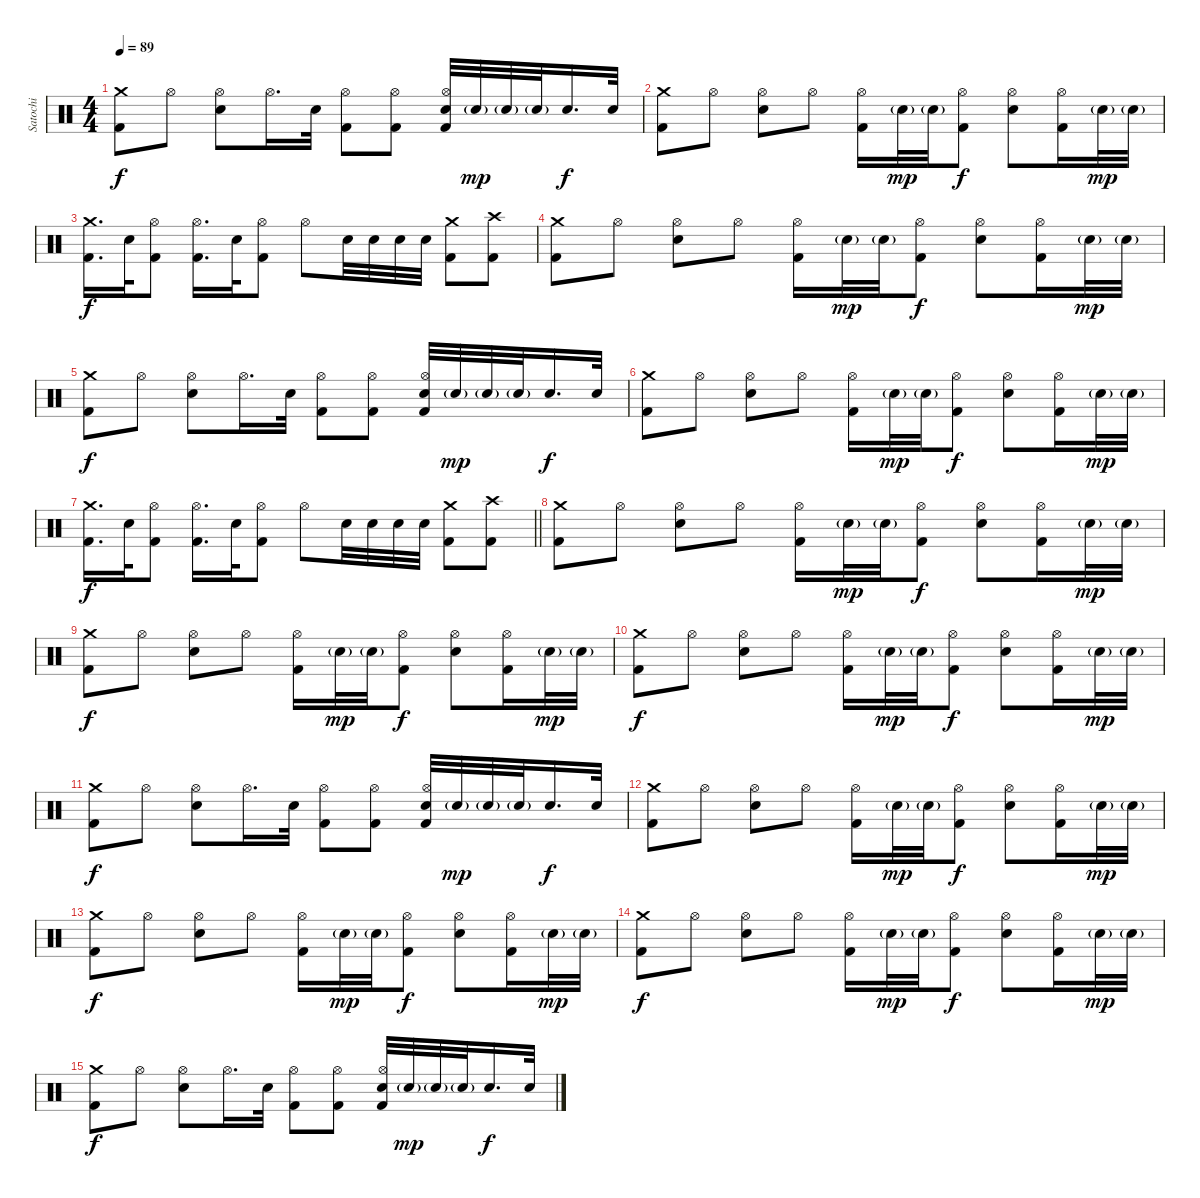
\track ("Satochi" "Satochi") {instrument percussion}
\staff {score}
\articulation defaults
\ts (4 4)
\tempo 89
\clef neutral
\ks c
("Crash medium (hit)" "Kick (hit) 2").8{dy f} "Hi-Hat (open)".8 ("Hi-Hat (open)" "Electric Snare (hit)").8 "Hi-Hat (open)".16{d} "Electric Snare (hit)".32 ("Hi-Hat (open)" "Kick (hit) 2").8 ("Hi-Hat (open)" "Kick (hit) 2").8 ("Hi-Hat (open)" "Electric Snare (hit)" "Kick (hit) 2").32 "Electric Snare (hit)"{g}.32{dy mp} "Electric Snare (hit)"{g}.32 "Electric Snare (hit)"{g}.32 "Electric Snare (hit)".16{d dy f} "Electric Snare (hit)".32 |
("Crash medium (hit)" "Kick (hit) 2").8 "Hi-Hat (open)".8 ("Hi-Hat (open)" "Electric Snare (hit)").8 "Hi-Hat (open)".8 ("Hi-Hat (open)" "Kick (hit) 2").16 "Electric Snare (hit)"{g}.32{dy mp} "Electric Snare (hit)"{g}.32 ("Hi-Hat (open)" "Kick (hit) 2").8{dy f} ("Hi-Hat (open)" "Electric Snare (hit)").8 ("Hi-Hat (open)" "Kick (hit) 2").16 "Electric Snare (hit)"{g}.32{dy mp} "Electric Snare (hit)"{g}.32 |
("Crash medium (hit)" "Kick (hit) 2").16{d dy f} "Electric Snare (hit)".32 ("Hi-Hat (open)" "Kick (hit) 2").8 ("Hi-Hat (open)" "Kick (hit) 2").16{d} "Electric Snare (hit)".32 ("Hi-Hat (open)" "Kick (hit) 2").8 "Hi-Hat (open)".8 "Electric Snare (hit)".32 "Electric Snare (hit)".32 "Electric Snare (hit)".32 "Electric Snare (hit)".32 ("Crash medium (hit)" "Kick (hit) 2").8 ("Crash high (hit)" "Kick (hit) 2").8 |
("Crash medium (hit)" "Kick (hit) 2").8 "Hi-Hat (open)".8 ("Hi-Hat (open)" "Electric Snare (hit)").8 "Hi-Hat (open)".8 ("Hi-Hat (open)" "Kick (hit) 2").16 "Electric Snare (hit)"{g}.32{dy mp} "Electric Snare (hit)"{g}.32 ("Hi-Hat (open)" "Kick (hit) 2").8{dy f} ("Hi-Hat (open)" "Electric Snare (hit)").8 ("Hi-Hat (open)" "Kick (hit) 2").16 "Electric Snare (hit)"{g}.32{dy mp} "Electric Snare (hit)"{g}.32 |
("Crash medium (hit)" "Kick (hit) 2").8{dy f} "Hi-Hat (open)".8 ("Hi-Hat (open)" "Electric Snare (hit)").8 "Hi-Hat (open)".16{d} "Electric Snare (hit)".32 ("Hi-Hat (open)" "Kick (hit) 2").8 ("Hi-Hat (open)" "Kick (hit) 2").8 ("Hi-Hat (open)" "Electric Snare (hit)" "Kick (hit) 2").32 "Electric Snare (hit)"{g}.32{dy mp} "Electric Snare (hit)"{g}.32 "Electric Snare (hit)"{g}.32 "Electric Snare (hit)".16{d dy f} "Electric Snare (hit)".32 |
("Crash medium (hit)" "Kick (hit) 2").8 "Hi-Hat (open)".8 ("Hi-Hat (open)" "Electric Snare (hit)").8 "Hi-Hat (open)".8 ("Hi-Hat (open)" "Kick (hit) 2").16 "Electric Snare (hit)"{g}.32{dy mp} "Electric Snare (hit)"{g}.32 ("Hi-Hat (open)" "Kick (hit) 2").8{dy f} ("Hi-Hat (open)" "Electric Snare (hit)").8 ("Hi-Hat (open)" "Kick (hit) 2").16 "Electric Snare (hit)"{g}.32{dy mp} "Electric Snare (hit)"{g}.32 |
\barLineRight lightlight
("Crash medium (hit)" "Kick (hit) 2").16{d dy f} "Electric Snare (hit)".32 ("Hi-Hat (open)" "Kick (hit) 2").8 ("Hi-Hat (open)" "Kick (hit) 2").16{d} "Electric Snare (hit)".32 ("Hi-Hat (open)" "Kick (hit) 2").8 "Hi-Hat (open)".8 "Electric Snare (hit)".32 "Electric Snare (hit)".32 "Electric Snare (hit)".32 "Electric Snare (hit)".32 ("Crash medium (hit)" "Kick (hit) 2").8 ("Crash high (hit)" "Kick (hit) 2").8 |
("Crash medium (hit)" "Kick (hit) 2").8 "Hi-Hat (open)".8 ("Hi-Hat (open)" "Electric Snare (hit)").8 "Hi-Hat (open)".8 ("Hi-Hat (open)" "Kick (hit) 2").16 "Electric Snare (hit)"{g}.32{dy mp} "Electric Snare (hit)"{g}.32 ("Hi-Hat (open)" "Kick (hit) 2").8{dy f} ("Hi-Hat (open)" "Electric Snare (hit)").8 ("Hi-Hat (open)" "Kick (hit) 2").16 "Electric Snare (hit)"{g}.32{dy mp} "Electric Snare (hit)"{g}.32 |
("Crash medium (hit)" "Kick (hit) 2").8{dy f} "Hi-Hat (open)".8 ("Hi-Hat (open)" "Electric Snare (hit)").8 "Hi-Hat (open)".8 ("Hi-Hat (open)" "Kick (hit) 2").16 "Electric Snare (hit)"{g}.32{dy mp} "Electric Snare (hit)"{g}.32 ("Hi-Hat (open)" "Kick (hit) 2").8{dy f} ("Hi-Hat (open)" "Electric Snare (hit)").8 ("Hi-Hat (open)" "Kick (hit) 2").16 "Electric Snare (hit)"{g}.32{dy mp} "Electric Snare (hit)"{g}.32 |
("Crash medium (hit)" "Kick (hit) 2").8{dy f} "Hi-Hat (open)".8 ("Hi-Hat (open)" "Electric Snare (hit)").8 "Hi-Hat (open)".8 ("Hi-Hat (open)" "Kick (hit) 2").16 "Electric Snare (hit)"{g}.32{dy mp} "Electric Snare (hit)"{g}.32 ("Hi-Hat (open)" "Kick (hit) 2").8{dy f} ("Hi-Hat (open)" "Electric Snare (hit)").8 ("Hi-Hat (open)" "Kick (hit) 2").16 "Electric Snare (hit)"{g}.32{dy mp} "Electric Snare (hit)"{g}.32 |
("Crash medium (hit)" "Kick (hit) 2").8{dy f} "Hi-Hat (open)".8 ("Hi-Hat (open)" "Electric Snare (hit)").8 "Hi-Hat (open)".16{d} "Electric Snare (hit)".32 ("Hi-Hat (open)" "Kick (hit) 2").8 ("Hi-Hat (open)" "Kick (hit) 2").8 ("Hi-Hat (open)" "Electric Snare (hit)" "Kick (hit) 2").32 "Electric Snare (hit)"{g}.32{dy mp} "Electric Snare (hit)"{g}.32 "Electric Snare (hit)"{g}.32 "Electric Snare (hit)".16{d dy f} "Electric Snare (hit)".32 |
("Crash medium (hit)" "Kick (hit) 2").8{volume 0} "Hi-Hat (open)".8 ("Hi-Hat (open)" "Electric Snare (hit)").8 "Hi-Hat (open)".8 ("Hi-Hat (open)" "Kick (hit) 2").16 "Electric Snare (hit)"{g}.32{dy mp} "Electric Snare (hit)"{g}.32 ("Hi-Hat (open)" "Kick (hit) 2").8{dy f} ("Hi-Hat (open)" "Electric Snare (hit)").8 ("Hi-Hat (open)" "Kick (hit) 2").16 "Electric Snare (hit)"{g}.32{dy mp} "Electric Snare (hit)"{g}.32 |
("Crash medium (hit)" "Kick (hit) 2").8{dy f} "Hi-Hat (open)".8 ("Hi-Hat (open)" "Electric Snare (hit)").8 "Hi-Hat (open)".8 ("Hi-Hat (open)" "Kick (hit) 2").16 "Electric Snare (hit)"{g}.32{dy mp} "Electric Snare (hit)"{g}.32 ("Hi-Hat (open)" "Kick (hit) 2").8{dy f} ("Hi-Hat (open)" "Electric Snare (hit)").8 ("Hi-Hat (open)" "Kick (hit) 2").16 "Electric Snare (hit)"{g}.32{dy mp} "Electric Snare (hit)"{g}.32 |
("Crash medium (hit)" "Kick (hit) 2").8{dy f} "Hi-Hat (open)".8 ("Hi-Hat (open)" "Electric Snare (hit)").8 "Hi-Hat (open)".8 ("Hi-Hat (open)" "Kick (hit) 2").16 "Electric Snare (hit)"{g}.32{dy mp} "Electric Snare (hit)"{g}.32 ("Hi-Hat (open)" "Kick (hit) 2").8{dy f} ("Hi-Hat (open)" "Electric Snare (hit)").8 ("Hi-Hat (open)" "Kick (hit) 2").16 "Electric Snare (hit)"{g}.32{dy mp} "Electric Snare (hit)"{g}.32 |
("Crash medium (hit)" "Kick (hit) 2").8{dy f} "Hi-Hat (open)".8 ("Hi-Hat (open)" "Electric Snare (hit)").8 "Hi-Hat (open)".16{d} "Electric Snare (hit)".32 ("Hi-Hat (open)" "Kick (hit) 2").8 ("Hi-Hat (open)" "Kick (hit) 2").8 ("Hi-Hat (open)" "Electric Snare (hit)" "Kick (hit) 2").32 "Electric Snare (hit)"{g}.32{dy mp} "Electric Snare (hit)"{g}.32 "Electric Snare (hit)"{g}.32 "Electric Snare (hit)".16{d dy f} "Electric Snare (hit)".32
